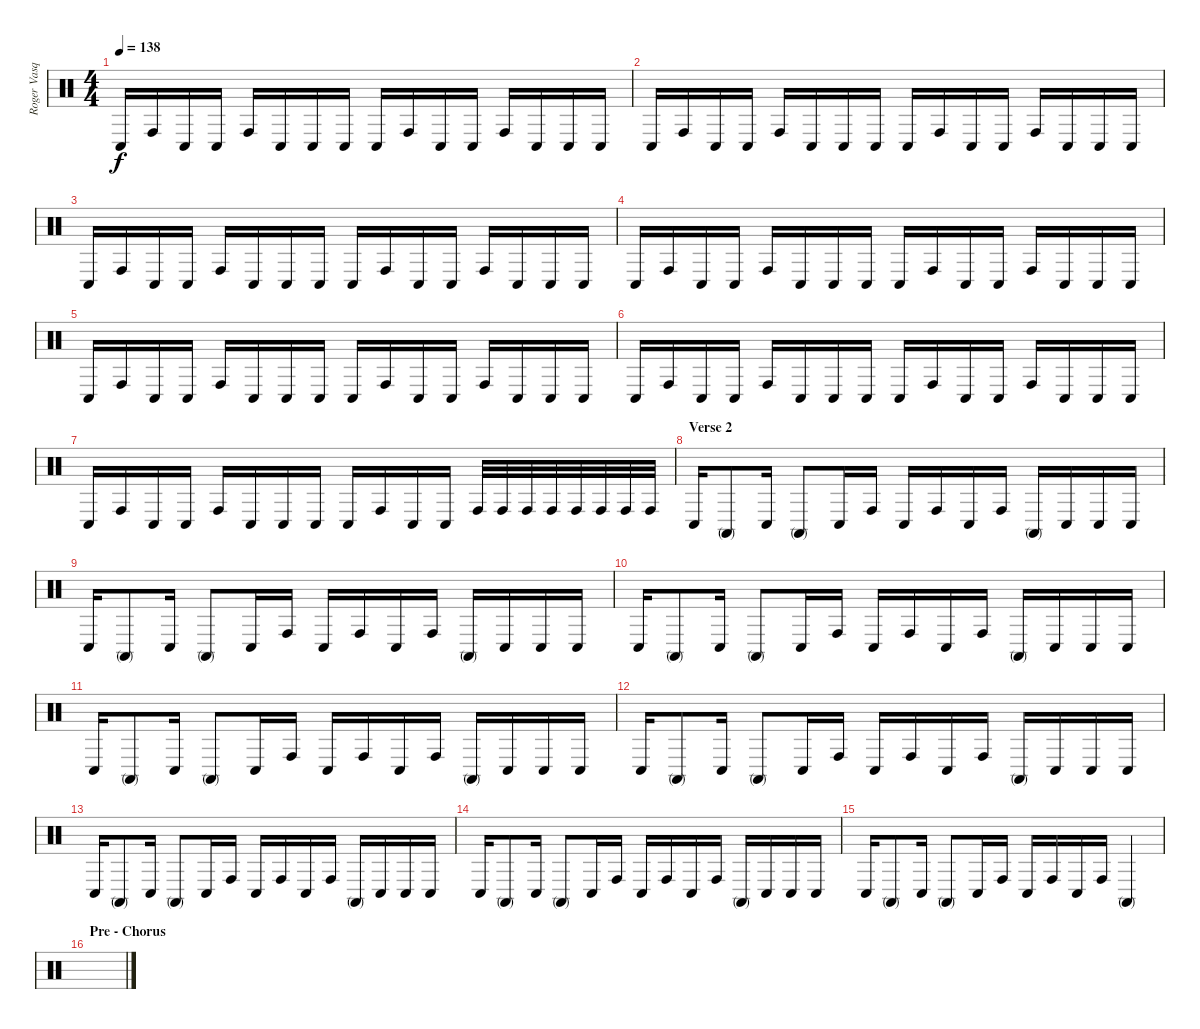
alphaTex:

\track ("Roger Vasquez - Percussion" "Roger Vasq") {instrument percussion}
\staff {score}
\articulation defaults
\ts (4 4)
\tempo 138
\clef neutral
\ks c "Conga low (hit)".16{dy f} "Conga high (hit)".16 "Conga low (hit)".16 "Conga low (hit)".16 "Conga high (hit)".16 "Conga low (hit)".16 "Conga low (hit)".16 "Conga low (hit)".16 "Conga low (hit)".16 "Conga high (hit)".16 "Conga low (hit)".16 "Conga low (hit)".16 "Conga high (hit)".16 "Conga low (hit)".16 "Conga low (hit)".16 "Conga low (hit)".16
|
"Conga low (hit)".16 "Conga high (hit)".16 "Conga low (hit)".16 "Conga low (hit)".16 "Conga high (hit)".16 "Conga low (hit)".16 "Conga low (hit)".16 "Conga low (hit)".16 "Conga low (hit)".16 "Conga high (hit)".16 "Conga low (hit)".16 "Conga low (hit)".16 "Conga high (hit)".16 "Conga low (hit)".16 "Conga low (hit)".16 "Conga low (hit)".16 |
"Conga low (hit)".16 "Conga high (hit)".16 "Conga low (hit)".16 "Conga low (hit)".16 "Conga high (hit)".16 "Conga low (hit)".16 "Conga low (hit)".16 "Conga low (hit)".16 "Conga low (hit)".16 "Conga high (hit)".16 "Conga low (hit)".16 "Conga low (hit)".16 "Conga high (hit)".16 "Conga low (hit)".16 "Conga low (hit)".16 "Conga low (hit)".16 |
"Conga low (hit)".16 "Conga high (hit)".16 "Conga low (hit)".16 "Conga low (hit)".16 "Conga high (hit)".16 "Conga low (hit)".16 "Conga low (hit)".16 "Conga low (hit)".16 "Conga low (hit)".16 "Conga high (hit)".16 "Conga low (hit)".16 "Conga low (hit)".16 "Conga high (hit)".16 "Conga low (hit)".16 "Conga low (hit)".16 "Conga low (hit)".16 |
"Conga low (hit)".16 "Conga high (hit)".16 "Conga low (hit)".16 "Conga low (hit)".16 "Conga high (hit)".16 "Conga low (hit)".16 "Conga low (hit)".16 "Conga low (hit)".16 "Conga low (hit)".16 "Conga high (hit)".16 "Conga low (hit)".16 "Conga low (hit)".16 "Conga high (hit)".16 "Conga low (hit)".16 "Conga low (hit)".16 "Conga low (hit)".16 |
"Conga low (hit)".16 "Conga high (hit)".16 "Conga low (hit)".16 "Conga low (hit)".16 "Conga high (hit)".16 "Conga low (hit)".16 "Conga low (hit)".16 "Conga low (hit)".16 "Conga low (hit)".16 "Conga high (hit)".16 "Conga low (hit)".16 "Conga low (hit)".16 "Conga high (hit)".16 "Conga low (hit)".16 "Conga low (hit)".16 "Conga low (hit)".16 |
"Conga low (hit)".16 "Conga high (hit)".16 "Conga low (hit)".16 "Conga low (hit)".16 "Conga high (hit)".16 "Conga low (hit)".16 "Conga low (hit)".16 "Conga low (hit)".16 "Conga low (hit)".16 "Conga high (hit)".16 "Conga low (hit)".16 "Conga low (hit)".16 "Conga high (hit)".32 "Conga high (hit)".32 "Conga high (hit)".32 "Conga high (hit)".32 "Conga high (hit)".32 "Conga high (hit)".32 "Conga high (hit)".32 "Conga high (hit)".32 |
\section ("" "Verse 2")
"Conga low (hit)".16 "Conga high (mute)".8 "Conga low (hit)".16 "Conga high (mute)".8 "Conga low (hit)".16 "Conga high (hit)".16 "Conga low (hit)".16 "Conga high (hit)".16 "Conga low (hit)".16 "Conga high (hit)".16 "Conga high (mute)".16 "Conga low (hit)".16 "Conga low (hit)".16 "Conga low (hit)".16 |
"Conga low (hit)".16 "Conga high (mute)".8 "Conga low (hit)".16 "Conga high (mute)".8 "Conga low (hit)".16 "Conga high (hit)".16 "Conga low (hit)".16 "Conga high (hit)".16 "Conga low (hit)".16 "Conga high (hit)".16 "Conga high (mute)".16 "Conga low (hit)".16 "Conga low (hit)".16 "Conga low (hit)".16 |
"Conga low (hit)".16 "Conga high (mute)".8 "Conga low (hit)".16 "Conga high (mute)".8 "Conga low (hit)".16 "Conga high (hit)".16 "Conga low (hit)".16 "Conga high (hit)".16 "Conga low (hit)".16 "Conga high (hit)".16 "Conga high (mute)".16 "Conga low (hit)".16 "Conga low (hit)".16 "Conga low (hit)".16 |
"Conga low (hit)".16 "Conga high (mute)".8 "Conga low (hit)".16 "Conga high (mute)".8 "Conga low (hit)".16 "Conga high (hit)".16 "Conga low (hit)".16 "Conga high (hit)".16 "Conga low (hit)".16 "Conga high (hit)".16 "Conga high (mute)".16 "Conga low (hit)".16 "Conga low (hit)".16 "Conga low (hit)".16 |
"Conga low (hit)".16 "Conga high (mute)".8 "Conga low (hit)".16 "Conga high (mute)".8 "Conga low (hit)".16 "Conga high (hit)".16 "Conga low (hit)".16 "Conga high (hit)".16 "Conga low (hit)".16 "Conga high (hit)".16 "Conga high (mute)".16 "Conga low (hit)".16 "Conga low (hit)".16 "Conga low (hit)".16 |
"Conga low (hit)".16 "Conga high (mute)".8 "Conga low (hit)".16 "Conga high (mute)".8 "Conga low (hit)".16 "Conga high (hit)".16 "Conga low (hit)".16 "Conga high (hit)".16 "Conga low (hit)".16 "Conga high (hit)".16 "Conga high (mute)".16 "Conga low (hit)".16 "Conga low (hit)".16 "Conga low (hit)".16 |
"Conga low (hit)".16 "Conga high (mute)".8 "Conga low (hit)".16 "Conga high (mute)".8 "Conga low (hit)".16 "Conga high (hit)".16 "Conga low (hit)".16 "Conga high (hit)".16 "Conga low (hit)".16 "Conga high (hit)".16 "Conga high (mute)".16 "Conga low (hit)".16 "Conga low (hit)".16 "Conga low (hit)".16 |
"Conga low (hit)".16 "Conga high (mute)".8 "Conga low (hit)".16 "Conga high (mute)".8 "Conga low (hit)".16 "Conga high (hit)".16 "Conga low (hit)".16 "Conga high (hit)".16 "Conga low (hit)".16 "Conga high (hit)".16 "Conga high (mute)".4 |
\section ("" "Pre - Chorus")
